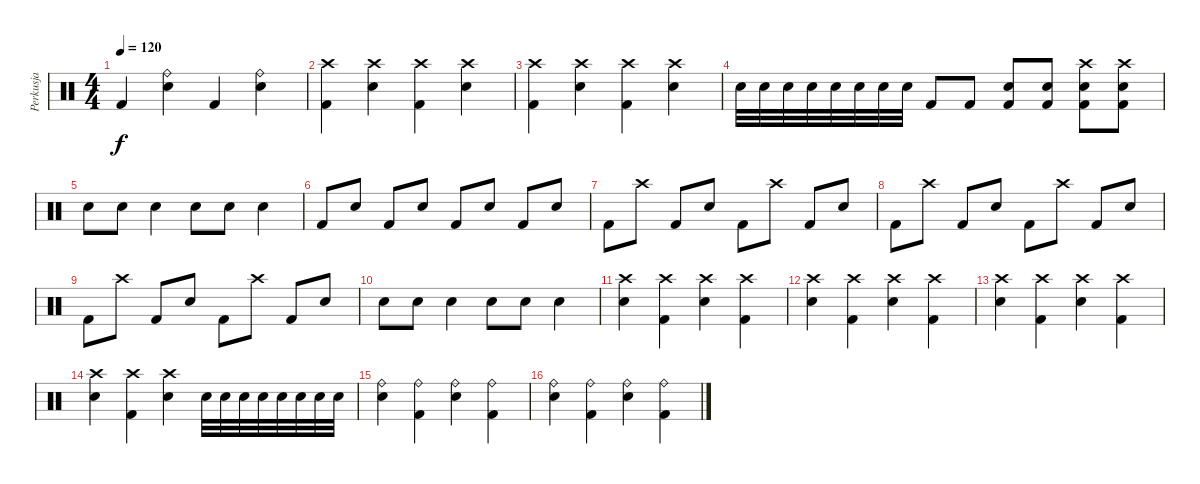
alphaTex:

\track ("Perkusja" "Perkusja") {instrument percussion}
\staff {score}
\articulation defaults
\ts (4 4)
\tempo 120
\clef neutral
\ks c "Kick (hit) 2".4{dy f}
("Ride (bell)" "Snare (hit) 2").4 "Kick (hit) 2".4 ("Ride (bell)" "Snare (hit) 2").4 |
("Crash high (hit)" "Kick (hit) 2").4 ("Snare (hit) 2" "Crash high (hit)").4 ("Crash high (hit)" "Kick (hit) 2").4 ("Snare (hit) 2" "Crash high (hit)").4 |
("Crash high (hit)" "Kick (hit) 2").4 ("Snare (hit) 2" "Crash high (hit)").4 ("Crash high (hit)" "Kick (hit) 2").4 ("Snare (hit) 2" "Crash high (hit)").4 |
"Snare (hit) 2".32 "Snare (hit) 2".32 "Snare (hit) 2".32 "Snare (hit) 2".32 "Snare (hit) 2".32 "Snare (hit) 2".32 "Snare (hit) 2".32 "Snare (hit) 2".32 "Kick (hit) 2".8 "Kick (hit) 2".8 ("Snare (hit) 2" "Kick (hit) 2").8 ("Snare (hit) 2" "Kick (hit) 2").8 ("Crash high (hit)" "Snare (hit) 2" "Kick (hit) 2").8 ("Crash high (hit)" "Snare (hit) 2" "Kick (hit) 2").8 |
"Snare (hit) 2".8 "Snare (hit) 2".8 "Snare (hit) 2".4 "Snare (hit) 2".8 "Snare (hit) 2".8 "Snare (hit) 2".4 |
"Kick (hit) 2".8 "Snare (hit) 2".8 "Kick (hit) 2".8 "Snare (hit) 2".8 "Kick (hit) 2".8 "Snare (hit) 2".8 "Kick (hit) 2".8 "Snare (hit) 2".8 |
"Kick (hit) 2".8 "Crash high (hit)".8 "Kick (hit) 2".8 "Snare (hit) 2".8 "Kick (hit) 2".8 "Crash high (hit)".8 "Kick (hit) 2".8 "Snare (hit) 2".8 |
"Kick (hit) 2".8 "Crash high (hit)".8 "Kick (hit) 2".8 "Snare (hit) 2".8 "Kick (hit) 2".8 "Crash high (hit)".8 "Kick (hit) 2".8 "Snare (hit) 2".8 |
"Kick (hit) 2".8 "Crash high (hit)".8 "Kick (hit) 2".8 "Snare (hit) 2".8 "Kick (hit) 2".8 "Crash high (hit)".8 "Kick (hit) 2".8 "Snare (hit) 2".8 |
"Snare (hit) 2".8 "Snare (hit) 2".8 "Snare (hit) 2".4 "Snare (hit) 2".8 "Snare (hit) 2".8 "Snare (hit) 2".4 |
("Crash high (hit)" "Snare (hit) 2").4 ("Crash high (hit)" "Kick (hit) 2").4 ("Crash high (hit)" "Snare (hit) 2").4 ("Crash high (hit)" "Kick (hit) 2").4 |
("Crash high (hit)" "Snare (hit) 2").4 ("Crash high (hit)" "Kick (hit) 2").4 ("Crash high (hit)" "Snare (hit) 2").4 ("Crash high (hit)" "Kick (hit) 2").4 |
("Crash high (hit)" "Snare (hit) 2").4 ("Crash high (hit)" "Kick (hit) 2").4 ("Crash high (hit)" "Snare (hit) 2").4 ("Crash high (hit)" "Kick (hit) 2").4 |
("Crash high (hit)" "Snare (hit) 2").4 ("Crash high (hit)" "Kick (hit) 2").4 ("Crash high (hit)" "Snare (hit) 2").4 "Snare (hit) 2".32 "Snare (hit) 2".32 "Snare (hit) 2".32 "Snare (hit) 2".32 "Snare (hit) 2".32 "Snare (hit) 2".32 "Snare (hit) 2".32 "Snare (hit) 2".32 |
("Ride (bell)" "Snare (hit) 2").4 ("Ride (bell)" "Kick (hit) 2").4 ("Ride (bell)" "Snare (hit) 2").4 ("Ride (bell)" "Kick (hit) 2").4 |
("Ride (bell)" "Snare (hit) 2").4 ("Ride (bell)" "Kick (hit) 2").4 ("Ride (bell)" "Snare (hit) 2").4 ("Ride (bell)" "Kick (hit) 2").4
